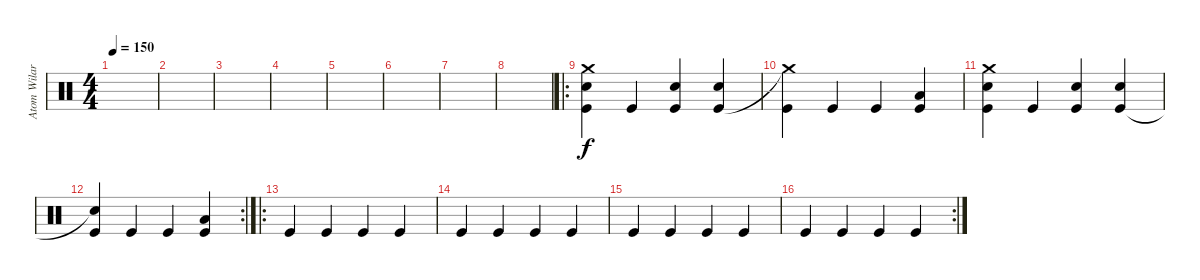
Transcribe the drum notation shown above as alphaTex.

\track ("Atom Wilard" "Atom Wilar") {instrument percussion}
\staff {score}
\articulation defaults
\ts (4 4)
\tempo 150
\clef neutral
\ks c
|
|
|
|
|
|
|
|
\ro
("Crash medium (hit)" "Kick (hit)" "Snare (hit) 2").4 "Kick (hit)".4 ("Kick (hit)" "Snare (hit) 2").4 ("Kick (hit)" "Snare (hit) 2").4 |
("Crash medium (hit)"{t} "Kick (hit)").4 "Kick (hit)".4 "Kick (hit)".4 ("Kick (hit)" "Low Tom (hit)").4 |
("Crash medium (hit)" "Kick (hit)" "Snare (hit) 2").4 "Kick (hit)".4 ("Kick (hit)" "Snare (hit) 2").4 ("Kick (hit)" "Snare (hit) 2").4 |
\rc 2
("Snare (hit)"{t} "Kick (hit)").4 "Kick (hit)".4 "Kick (hit)".4 ("Kick (hit)" "Low Tom (hit)").4 |
\ro "Kick (hit)".4 "Kick (hit)".4 "Kick (hit)".4 "Kick (hit)".4
|
"Kick (hit)".4 "Kick (hit)".4 "Kick (hit)".4 "Kick (hit)".4 |
"Kick (hit)".4 "Kick (hit)".4 "Kick (hit)".4 "Kick (hit)".4 |
\rc 2 "Kick (hit)".4 "Kick (hit)".4 "Kick (hit)".4 "Kick (hit)".4
